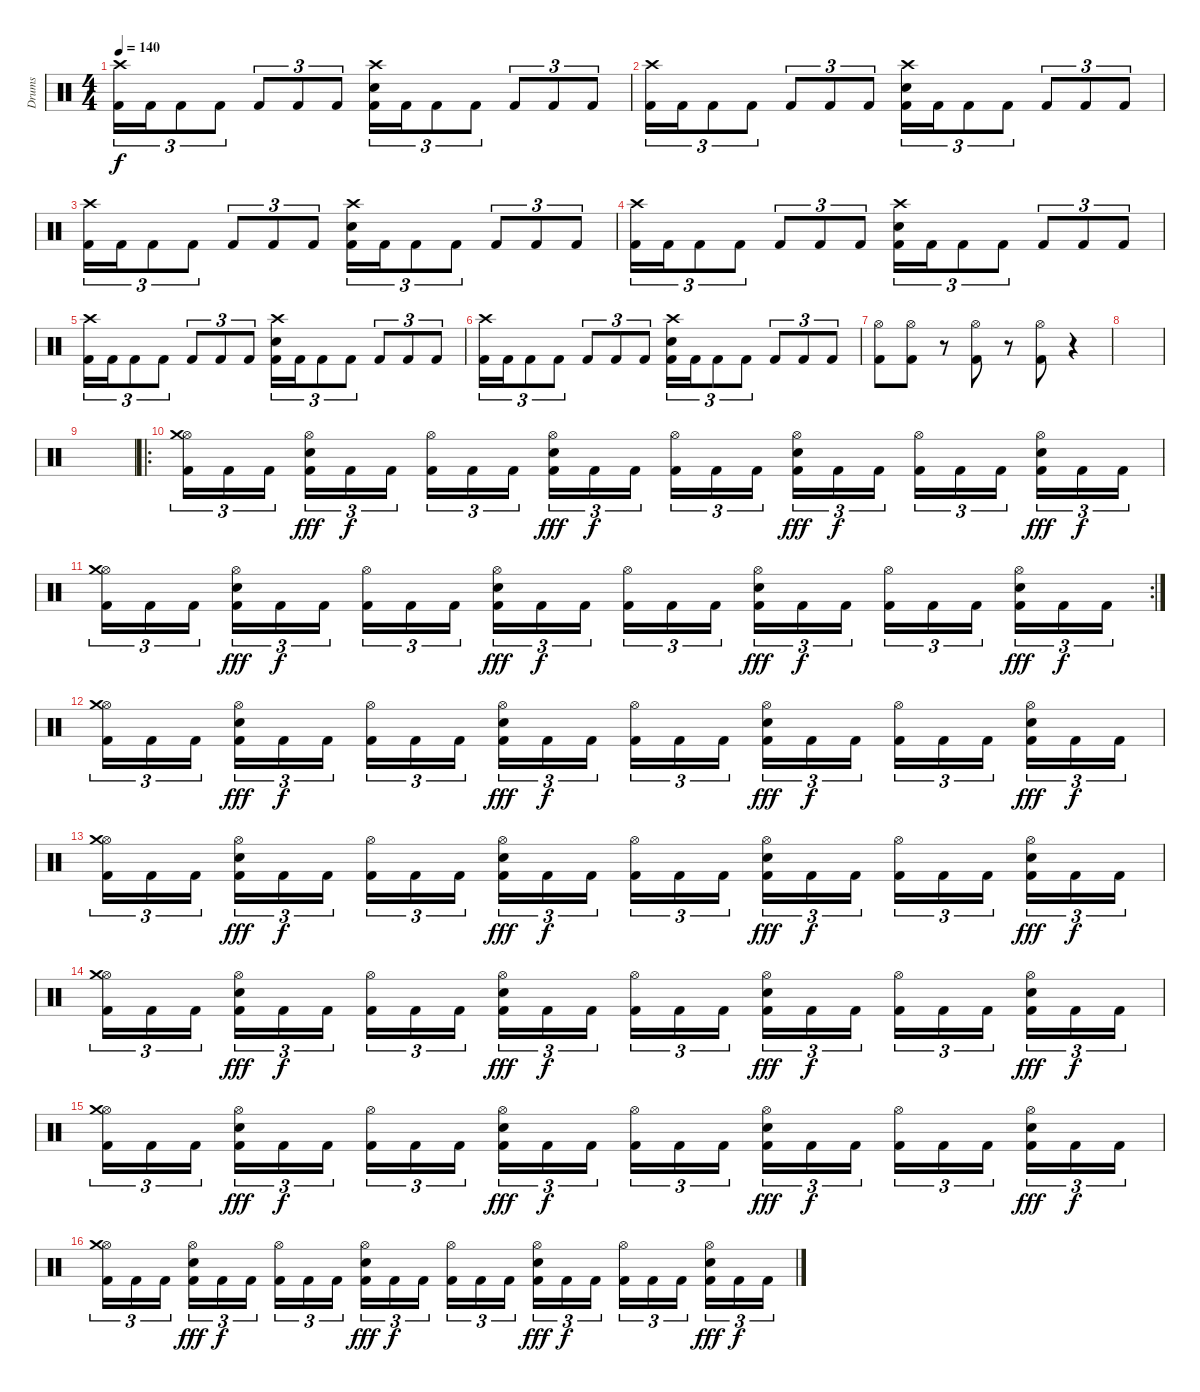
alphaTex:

\track ("Drums" "Drums") {instrument percussion}
\staff {score}
\articulation defaults
\ts (4 4)
\tempo 140
\clef neutral
\ks c
("Crash high (hit)" "Kick (hit) 2").16{tu (3 2) dy f} "Kick (hit) 2".16{tu (3 2)} "Kick (hit) 2".8{tu (3 2)} "Kick (hit) 2".8{tu (3 2)} "Kick (hit) 2".8{tu (3 2)} "Kick (hit) 2".8{tu (3 2)} "Kick (hit) 2".8{tu (3 2)} ("Crash high (hit)" "Snare (hit) 2" "Kick (hit) 2").16{tu (3 2)} "Kick (hit) 2".16{tu (3 2)} "Kick (hit) 2".8{tu (3 2)} "Kick (hit) 2".8{tu (3 2)} "Kick (hit) 2".8{tu (3 2)} "Kick (hit) 2".8{tu (3 2)} "Kick (hit) 2".8{tu (3 2)} |
("Crash high (hit)" "Kick (hit) 2").16{tu (3 2)} "Kick (hit) 2".16{tu (3 2)} "Kick (hit) 2".8{tu (3 2)} "Kick (hit) 2".8{tu (3 2)} "Kick (hit) 2".8{tu (3 2)} "Kick (hit) 2".8{tu (3 2)} "Kick (hit) 2".8{tu (3 2)} ("Crash high (hit)" "Snare (hit) 2" "Kick (hit) 2").16{tu (3 2)} "Kick (hit) 2".16{tu (3 2)} "Kick (hit) 2".8{tu (3 2)} "Kick (hit) 2".8{tu (3 2)} "Kick (hit) 2".8{tu (3 2)} "Kick (hit) 2".8{tu (3 2)} "Kick (hit) 2".8{tu (3 2)} |
("Crash high (hit)" "Kick (hit) 2").16{tu (3 2)} "Kick (hit) 2".16{tu (3 2)} "Kick (hit) 2".8{tu (3 2)} "Kick (hit) 2".8{tu (3 2)} "Kick (hit) 2".8{tu (3 2)} "Kick (hit) 2".8{tu (3 2)} "Kick (hit) 2".8{tu (3 2)} ("Crash high (hit)" "Snare (hit) 2" "Kick (hit) 2").16{tu (3 2)} "Kick (hit) 2".16{tu (3 2)} "Kick (hit) 2".8{tu (3 2)} "Kick (hit) 2".8{tu (3 2)} "Kick (hit) 2".8{tu (3 2)} "Kick (hit) 2".8{tu (3 2)} "Kick (hit) 2".8{tu (3 2)} |
("Crash high (hit)" "Kick (hit) 2").16{tu (3 2)} "Kick (hit) 2".16{tu (3 2)} "Kick (hit) 2".8{tu (3 2)} "Kick (hit) 2".8{tu (3 2)} "Kick (hit) 2".8{tu (3 2)} "Kick (hit) 2".8{tu (3 2)} "Kick (hit) 2".8{tu (3 2)} ("Crash high (hit)" "Snare (hit) 2" "Kick (hit) 2").16{tu (3 2)} "Kick (hit) 2".16{tu (3 2)} "Kick (hit) 2".8{tu (3 2)} "Kick (hit) 2".8{tu (3 2)} "Kick (hit) 2".8{tu (3 2)} "Kick (hit) 2".8{tu (3 2)} "Kick (hit) 2".8{tu (3 2)} |
("Crash high (hit)" "Kick (hit) 2").16{tu (3 2)} "Kick (hit) 2".16{tu (3 2)} "Kick (hit) 2".8{tu (3 2)} "Kick (hit) 2".8{tu (3 2)} "Kick (hit) 2".8{tu (3 2)} "Kick (hit) 2".8{tu (3 2)} "Kick (hit) 2".8{tu (3 2)} ("Crash high (hit)" "Snare (hit) 2" "Kick (hit) 2").16{tu (3 2)} "Kick (hit) 2".16{tu (3 2)} "Kick (hit) 2".8{tu (3 2)} "Kick (hit) 2".8{tu (3 2)} "Kick (hit) 2".8{tu (3 2)} "Kick (hit) 2".8{tu (3 2)} "Kick (hit) 2".8{tu (3 2)} |
("Crash high (hit)" "Kick (hit) 2").16{tu (3 2)} "Kick (hit) 2".16{tu (3 2)} "Kick (hit) 2".8{tu (3 2)} "Kick (hit) 2".8{tu (3 2)} "Kick (hit) 2".8{tu (3 2)} "Kick (hit) 2".8{tu (3 2)} "Kick (hit) 2".8{tu (3 2)} ("Crash high (hit)" "Snare (hit) 2" "Kick (hit) 2").16{tu (3 2)} "Kick (hit) 2".16{tu (3 2)} "Kick (hit) 2".8{tu (3 2)} "Kick (hit) 2".8{tu (3 2)} "Kick (hit) 2".8{tu (3 2)} "Kick (hit) 2".8{tu (3 2)} "Kick (hit) 2".8{tu (3 2)} |
("Hi-Hat (open)" "Kick (hit) 2").8 ("Hi-Hat (open)" "Kick (hit) 2").8 r.8 ("Hi-Hat (open)" "Kick (hit) 2").8 r.8 ("Hi-Hat (open)" "Kick (hit) 2").8 r.4 |
|
|
\ro
("Hi-Hat (open)" "Crash medium (hit)" "Kick (hit) 2").16{tu (3 2)} "Kick (hit) 2".16{tu (3 2)} "Kick (hit) 2".16{tu (3 2)} ("Hi-Hat (open)" "Snare (hit) 2" "Kick (hit) 2").16{tu (3 2) dy fff} "Kick (hit) 2".16{tu (3 2) dy f} "Kick (hit) 2".16{tu (3 2)} ("Hi-Hat (open)" "Kick (hit) 2").16{tu (3 2)} "Kick (hit) 2".16{tu (3 2)} "Kick (hit) 2".16{tu (3 2)} ("Hi-Hat (open)" "Snare (hit) 2" "Kick (hit) 2").16{tu (3 2) dy fff} "Kick (hit) 2".16{tu (3 2) dy f} "Kick (hit) 2".16{tu (3 2)} ("Hi-Hat (open)" "Kick (hit) 2").16{tu (3 2)} "Kick (hit) 2".16{tu (3 2)} "Kick (hit) 2".16{tu (3 2)} ("Hi-Hat (open)" "Snare (hit) 2" "Kick (hit) 2").16{tu (3 2) dy fff} "Kick (hit) 2".16{tu (3 2) dy f} "Kick (hit) 2".16{tu (3 2)} ("Hi-Hat (open)" "Kick (hit) 2").16{tu (3 2)} "Kick (hit) 2".16{tu (3 2)} "Kick (hit) 2".16{tu (3 2)} ("Hi-Hat (open)" "Snare (hit) 2" "Kick (hit) 2").16{tu (3 2) dy fff} "Kick (hit) 2".16{tu (3 2) dy f} "Kick (hit) 2".16{tu (3 2)} |
\rc 2
("Hi-Hat (open)" "Crash medium (hit)" "Kick (hit) 2").16{tu (3 2)} "Kick (hit) 2".16{tu (3 2)} "Kick (hit) 2".16{tu (3 2)} ("Hi-Hat (open)" "Snare (hit) 2" "Kick (hit) 2").16{tu (3 2) dy fff} "Kick (hit) 2".16{tu (3 2) dy f} "Kick (hit) 2".16{tu (3 2)} ("Hi-Hat (open)" "Kick (hit) 2").16{tu (3 2)} "Kick (hit) 2".16{tu (3 2)} "Kick (hit) 2".16{tu (3 2)} ("Hi-Hat (open)" "Snare (hit) 2" "Kick (hit) 2").16{tu (3 2) dy fff} "Kick (hit) 2".16{tu (3 2) dy f} "Kick (hit) 2".16{tu (3 2)} ("Hi-Hat (open)" "Kick (hit) 2").16{tu (3 2)} "Kick (hit) 2".16{tu (3 2)} "Kick (hit) 2".16{tu (3 2)} ("Hi-Hat (open)" "Snare (hit) 2" "Kick (hit) 2").16{tu (3 2) dy fff} "Kick (hit) 2".16{tu (3 2) dy f} "Kick (hit) 2".16{tu (3 2)} ("Hi-Hat (open)" "Kick (hit) 2").16{tu (3 2)} "Kick (hit) 2".16{tu (3 2)} "Kick (hit) 2".16{tu (3 2)} ("Hi-Hat (open)" "Snare (hit) 2" "Kick (hit) 2").16{tu (3 2) dy fff} "Kick (hit) 2".16{tu (3 2) dy f} "Kick (hit) 2".16{tu (3 2)} |
("Hi-Hat (open)" "Crash medium (hit)" "Kick (hit) 2").16{tu (3 2)} "Kick (hit) 2".16{tu (3 2)} "Kick (hit) 2".16{tu (3 2)} ("Hi-Hat (open)" "Snare (hit) 2" "Kick (hit) 2").16{tu (3 2) dy fff} "Kick (hit) 2".16{tu (3 2) dy f} "Kick (hit) 2".16{tu (3 2)} ("Hi-Hat (open)" "Kick (hit) 2").16{tu (3 2)} "Kick (hit) 2".16{tu (3 2)} "Kick (hit) 2".16{tu (3 2)} ("Hi-Hat (open)" "Snare (hit) 2" "Kick (hit) 2").16{tu (3 2) dy fff} "Kick (hit) 2".16{tu (3 2) dy f} "Kick (hit) 2".16{tu (3 2)} ("Hi-Hat (open)" "Kick (hit) 2").16{tu (3 2)} "Kick (hit) 2".16{tu (3 2)} "Kick (hit) 2".16{tu (3 2)} ("Hi-Hat (open)" "Snare (hit) 2" "Kick (hit) 2").16{tu (3 2) dy fff} "Kick (hit) 2".16{tu (3 2) dy f} "Kick (hit) 2".16{tu (3 2)} ("Hi-Hat (open)" "Kick (hit) 2").16{tu (3 2)} "Kick (hit) 2".16{tu (3 2)} "Kick (hit) 2".16{tu (3 2)} ("Hi-Hat (open)" "Snare (hit) 2" "Kick (hit) 2").16{tu (3 2) dy fff} "Kick (hit) 2".16{tu (3 2) dy f} "Kick (hit) 2".16{tu (3 2)} |
("Hi-Hat (open)" "Crash medium (hit)" "Kick (hit) 2").16{tu (3 2)} "Kick (hit) 2".16{tu (3 2)} "Kick (hit) 2".16{tu (3 2)} ("Hi-Hat (open)" "Snare (hit) 2" "Kick (hit) 2").16{tu (3 2) dy fff} "Kick (hit) 2".16{tu (3 2) dy f} "Kick (hit) 2".16{tu (3 2)} ("Hi-Hat (open)" "Kick (hit) 2").16{tu (3 2)} "Kick (hit) 2".16{tu (3 2)} "Kick (hit) 2".16{tu (3 2)} ("Hi-Hat (open)" "Snare (hit) 2" "Kick (hit) 2").16{tu (3 2) dy fff} "Kick (hit) 2".16{tu (3 2) dy f} "Kick (hit) 2".16{tu (3 2)} ("Hi-Hat (open)" "Kick (hit) 2").16{tu (3 2)} "Kick (hit) 2".16{tu (3 2)} "Kick (hit) 2".16{tu (3 2)} ("Hi-Hat (open)" "Snare (hit) 2" "Kick (hit) 2").16{tu (3 2) dy fff} "Kick (hit) 2".16{tu (3 2) dy f} "Kick (hit) 2".16{tu (3 2)} ("Hi-Hat (open)" "Kick (hit) 2").16{tu (3 2)} "Kick (hit) 2".16{tu (3 2)} "Kick (hit) 2".16{tu (3 2)} ("Hi-Hat (open)" "Snare (hit) 2" "Kick (hit) 2").16{tu (3 2) dy fff} "Kick (hit) 2".16{tu (3 2) dy f} "Kick (hit) 2".16{tu (3 2)} |
("Hi-Hat (open)" "Crash medium (hit)" "Kick (hit) 2").16{tu (3 2) volume 12} "Kick (hit) 2".16{tu (3 2)} "Kick (hit) 2".16{tu (3 2)} ("Hi-Hat (open)" "Snare (hit) 2" "Kick (hit) 2").16{tu (3 2) dy fff} "Kick (hit) 2".16{tu (3 2) dy f} "Kick (hit) 2".16{tu (3 2)} ("Hi-Hat (open)" "Kick (hit) 2").16{tu (3 2)} "Kick (hit) 2".16{tu (3 2)} "Kick (hit) 2".16{tu (3 2)} ("Hi-Hat (open)" "Snare (hit) 2" "Kick (hit) 2").16{tu (3 2) dy fff} "Kick (hit) 2".16{tu (3 2) dy f} "Kick (hit) 2".16{tu (3 2)} ("Hi-Hat (open)" "Kick (hit) 2").16{tu (3 2)} "Kick (hit) 2".16{tu (3 2)} "Kick (hit) 2".16{tu (3 2)} ("Hi-Hat (open)" "Snare (hit) 2" "Kick (hit) 2").16{tu (3 2) dy fff} "Kick (hit) 2".16{tu (3 2) dy f} "Kick (hit) 2".16{tu (3 2)} ("Hi-Hat (open)" "Kick (hit) 2").16{tu (3 2)} "Kick (hit) 2".16{tu (3 2)} "Kick (hit) 2".16{tu (3 2)} ("Hi-Hat (open)" "Snare (hit) 2" "Kick (hit) 2").16{tu (3 2) dy fff} "Kick (hit) 2".16{tu (3 2) dy f} "Kick (hit) 2".16{tu (3 2)} |
("Hi-Hat (open)" "Crash medium (hit)" "Kick (hit) 2").16{tu (3 2)} "Kick (hit) 2".16{tu (3 2)} "Kick (hit) 2".16{tu (3 2)} ("Hi-Hat (open)" "Snare (hit) 2" "Kick (hit) 2").16{tu (3 2) dy fff} "Kick (hit) 2".16{tu (3 2) dy f} "Kick (hit) 2".16{tu (3 2)} ("Hi-Hat (open)" "Kick (hit) 2").16{tu (3 2)} "Kick (hit) 2".16{tu (3 2)} "Kick (hit) 2".16{tu (3 2)} ("Hi-Hat (open)" "Snare (hit) 2" "Kick (hit) 2").16{tu (3 2) dy fff} "Kick (hit) 2".16{tu (3 2) dy f} "Kick (hit) 2".16{tu (3 2)} ("Hi-Hat (open)" "Kick (hit) 2").16{tu (3 2)} "Kick (hit) 2".16{tu (3 2)} "Kick (hit) 2".16{tu (3 2)} ("Hi-Hat (open)" "Snare (hit) 2" "Kick (hit) 2").16{tu (3 2) dy fff} "Kick (hit) 2".16{tu (3 2) dy f} "Kick (hit) 2".16{tu (3 2)} ("Hi-Hat (open)" "Kick (hit) 2").16{tu (3 2)} "Kick (hit) 2".16{tu (3 2)} "Kick (hit) 2".16{tu (3 2)} ("Hi-Hat (open)" "Snare (hit) 2" "Kick (hit) 2").16{tu (3 2) dy fff} "Kick (hit) 2".16{tu (3 2) dy f} "Kick (hit) 2".16{tu (3 2)} |
("Hi-Hat (open)" "Crash medium (hit)" "Kick (hit) 2").16{tu (3 2) volume 8} "Kick (hit) 2".16{tu (3 2)} "Kick (hit) 2".16{tu (3 2)} ("Hi-Hat (open)" "Snare (hit) 2" "Kick (hit) 2").16{tu (3 2) dy fff} "Kick (hit) 2".16{tu (3 2) dy f} "Kick (hit) 2".16{tu (3 2)} ("Hi-Hat (open)" "Kick (hit) 2").16{tu (3 2)} "Kick (hit) 2".16{tu (3 2)} "Kick (hit) 2".16{tu (3 2)} ("Hi-Hat (open)" "Snare (hit) 2" "Kick (hit) 2").16{tu (3 2) dy fff} "Kick (hit) 2".16{tu (3 2) dy f} "Kick (hit) 2".16{tu (3 2)} ("Hi-Hat (open)" "Kick (hit) 2").16{tu (3 2)} "Kick (hit) 2".16{tu (3 2)} "Kick (hit) 2".16{tu (3 2)} ("Hi-Hat (open)" "Snare (hit) 2" "Kick (hit) 2").16{tu (3 2) dy fff} "Kick (hit) 2".16{tu (3 2) dy f} "Kick (hit) 2".16{tu (3 2)} ("Hi-Hat (open)" "Kick (hit) 2").16{tu (3 2)} "Kick (hit) 2".16{tu (3 2)} "Kick (hit) 2".16{tu (3 2)} ("Hi-Hat (open)" "Snare (hit) 2" "Kick (hit) 2").16{tu (3 2) dy fff} "Kick (hit) 2".16{tu (3 2) dy f} "Kick (hit) 2".16{tu (3 2)}
